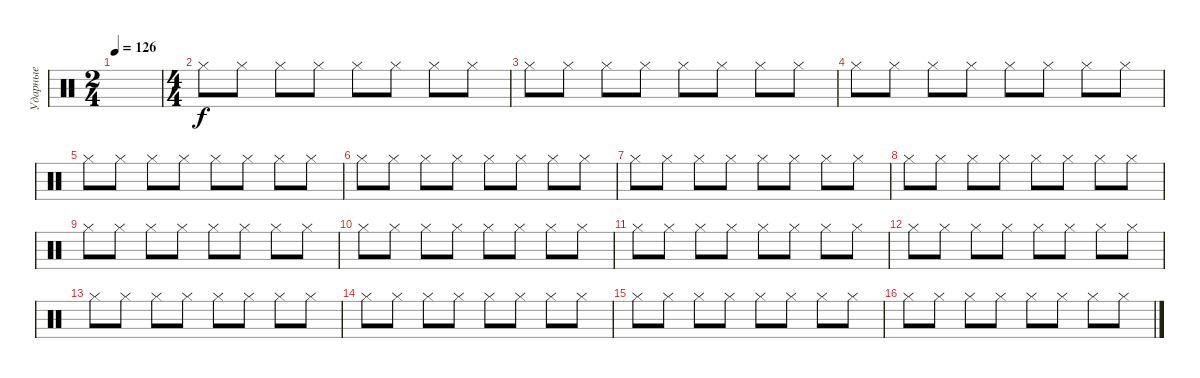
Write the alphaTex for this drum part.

\track ("Ударные" "Ударные") {instrument percussion}
\staff {score}
\articulation defaults
\ts (2 4)
\tempo 126
\clef neutral
\ks c
|
\ts (4 4)
"Hi-Hat (closed)".8 "Hi-Hat (closed)".8 "Hi-Hat (closed)".8 "Hi-Hat (closed)".8 "Hi-Hat (closed)".8 "Hi-Hat (closed)".8 "Hi-Hat (closed)".8 "Hi-Hat (closed)".8 |
"Hi-Hat (closed)".8 "Hi-Hat (closed)".8 "Hi-Hat (closed)".8 "Hi-Hat (closed)".8 "Hi-Hat (closed)".8 "Hi-Hat (closed)".8 "Hi-Hat (closed)".8 "Hi-Hat (closed)".8 |
"Hi-Hat (closed)".8 "Hi-Hat (closed)".8 "Hi-Hat (closed)".8 "Hi-Hat (closed)".8 "Hi-Hat (closed)".8 "Hi-Hat (closed)".8 "Hi-Hat (closed)".8 "Hi-Hat (closed)".8 |
"Hi-Hat (closed)".8 "Hi-Hat (closed)".8 "Hi-Hat (closed)".8 "Hi-Hat (closed)".8 "Hi-Hat (closed)".8 "Hi-Hat (closed)".8 "Hi-Hat (closed)".8 "Hi-Hat (closed)".8 |
"Hi-Hat (closed)".8 "Hi-Hat (closed)".8 "Hi-Hat (closed)".8 "Hi-Hat (closed)".8 "Hi-Hat (closed)".8 "Hi-Hat (closed)".8 "Hi-Hat (closed)".8 "Hi-Hat (closed)".8 |
"Hi-Hat (closed)".8 "Hi-Hat (closed)".8 "Hi-Hat (closed)".8 "Hi-Hat (closed)".8 "Hi-Hat (closed)".8 "Hi-Hat (closed)".8 "Hi-Hat (closed)".8 "Hi-Hat (closed)".8 |
"Hi-Hat (closed)".8 "Hi-Hat (closed)".8 "Hi-Hat (closed)".8 "Hi-Hat (closed)".8 "Hi-Hat (closed)".8 "Hi-Hat (closed)".8 "Hi-Hat (closed)".8 "Hi-Hat (closed)".8 |
"Hi-Hat (closed)".8 "Hi-Hat (closed)".8 "Hi-Hat (closed)".8 "Hi-Hat (closed)".8 "Hi-Hat (closed)".8 "Hi-Hat (closed)".8 "Hi-Hat (closed)".8 "Hi-Hat (closed)".8 |
"Hi-Hat (closed)".8 "Hi-Hat (closed)".8 "Hi-Hat (closed)".8 "Hi-Hat (closed)".8 "Hi-Hat (closed)".8 "Hi-Hat (closed)".8 "Hi-Hat (closed)".8 "Hi-Hat (closed)".8 |
"Hi-Hat (closed)".8 "Hi-Hat (closed)".8 "Hi-Hat (closed)".8 "Hi-Hat (closed)".8 "Hi-Hat (closed)".8 "Hi-Hat (closed)".8 "Hi-Hat (closed)".8 "Hi-Hat (closed)".8 |
"Hi-Hat (closed)".8 "Hi-Hat (closed)".8 "Hi-Hat (closed)".8 "Hi-Hat (closed)".8 "Hi-Hat (closed)".8 "Hi-Hat (closed)".8 "Hi-Hat (closed)".8 "Hi-Hat (closed)".8 |
"Hi-Hat (closed)".8 "Hi-Hat (closed)".8 "Hi-Hat (closed)".8 "Hi-Hat (closed)".8 "Hi-Hat (closed)".8 "Hi-Hat (closed)".8 "Hi-Hat (closed)".8 "Hi-Hat (closed)".8 |
"Hi-Hat (closed)".8 "Hi-Hat (closed)".8 "Hi-Hat (closed)".8 "Hi-Hat (closed)".8 "Hi-Hat (closed)".8 "Hi-Hat (closed)".8 "Hi-Hat (closed)".8 "Hi-Hat (closed)".8 |
"Hi-Hat (closed)".8 "Hi-Hat (closed)".8 "Hi-Hat (closed)".8 "Hi-Hat (closed)".8 "Hi-Hat (closed)".8 "Hi-Hat (closed)".8 "Hi-Hat (closed)".8 "Hi-Hat (closed)".8 |
"Hi-Hat (closed)".8 "Hi-Hat (closed)".8 "Hi-Hat (closed)".8 "Hi-Hat (closed)".8 "Hi-Hat (closed)".8 "Hi-Hat (closed)".8 "Hi-Hat (closed)".8 "Hi-Hat (closed)".8
